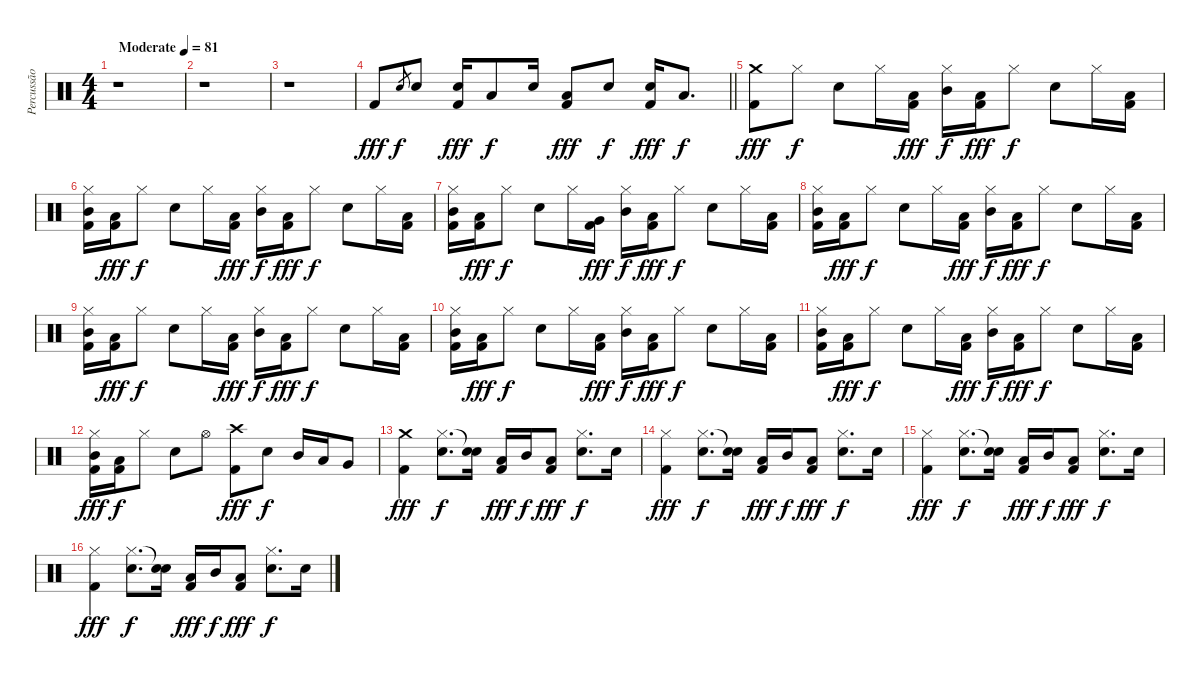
\track ("Percussão" "Percussão") {instrument percussion}
\staff {score}
\articulation defaults
\ts (4 4)
\tempo (81 "Moderate")
\clef neutral
\ks c
r.1{dy fff} |
r.1 |
r.1 |
\barLineRight lightlight "Kick (hit) 2".8 "Snare (hit) 2".8{gr dy f} "Snare (hit) 2".8
("Snare (hit) 2" "Kick (hit) 2").16{dy fff} "Low Tom (hit)".8{dy f} "Snare (hit) 2".16 ("Low Tom (hit)" "Kick (hit) 2").8{dy fff} "Snare (hit) 2".8{dy f} ("Snare (hit) 2" "Kick (hit) 2").16{dy fff} "Low Tom (hit)".8{d dy f} |
("Crash medium (hit)" "Kick (hit) 2").8{dy fff} "Hi-Hat (closed)".8{dy f} "Snare (hit) 2".8 "Hi-Hat (closed)".16 ("Low Tom (hit)" "Kick (hit) 2").16{dy fff} ("Hi-Hat (closed)" "Mid Tom (hit)").16{dy f} ("Low Tom (hit)" "Kick (hit) 2").16{dy fff} "Hi-Hat (closed)".8{dy f} "Snare (hit) 2".8 "Hi-Hat (closed)".16 ("Low Tom (hit)" "Kick (hit) 2").16 |
("Hi-Hat (closed)" "Mid Tom (hit)" "Kick (hit) 2").16 ("Low Tom (hit)" "Kick (hit) 2").16{dy fff} "Hi-Hat (closed)".8{dy f} "Snare (hit) 2".8 "Hi-Hat (closed)".16 ("Low Tom (hit)" "Kick (hit) 2").16{dy fff} ("Hi-Hat (closed)" "Mid Tom (hit)").16{dy f} ("Low Tom (hit)" "Kick (hit) 2").16{dy fff} "Hi-Hat (closed)".8{dy f} "Snare (hit) 2".8 "Hi-Hat (closed)".16 ("Low Tom (hit)" "Kick (hit) 2").16 |
("Hi-Hat (closed)" "Mid Tom (hit)" "Kick (hit) 2").16 ("Low Tom (hit)" "Kick (hit) 2").16{dy fff} "Hi-Hat (closed)".8{dy f} "Snare (hit) 2".8 "Hi-Hat (closed)".16 ("Very Low Tom (hit)" "Kick (hit) 2").16{dy fff} ("Hi-Hat (closed)" "Mid Tom (hit)").16{dy f} ("Low Tom (hit)" "Kick (hit) 2").16{dy fff} "Hi-Hat (closed)".8{dy f} "Snare (hit) 2".8 "Hi-Hat (closed)".16 ("Low Tom (hit)" "Kick (hit) 2").16 |
("Hi-Hat (closed)" "Mid Tom (hit)" "Kick (hit) 2").16 ("Low Tom (hit)" "Kick (hit) 2").16{dy fff} "Hi-Hat (closed)".8{dy f} "Snare (hit) 2".8 "Hi-Hat (closed)".16 ("Low Tom (hit)" "Kick (hit) 2").16{dy fff} ("Hi-Hat (closed)" "Mid Tom (hit)").16{dy f} ("Low Tom (hit)" "Kick (hit) 2").16{dy fff} "Hi-Hat (closed)".8{dy f} "Snare (hit) 2".8 "Hi-Hat (closed)".16 ("Low Tom (hit)" "Kick (hit) 2").16 |
("Hi-Hat (closed)" "Mid Tom (hit)" "Kick (hit) 2").16 ("Low Tom (hit)" "Kick (hit) 2").16{dy fff} "Hi-Hat (closed)".8{dy f} "Snare (hit) 2".8 "Hi-Hat (closed)".16 ("Low Tom (hit)" "Kick (hit) 2").16{dy fff} ("Hi-Hat (closed)" "Mid Tom (hit)").16{dy f} ("Low Tom (hit)" "Kick (hit) 2").16{dy fff} "Hi-Hat (closed)".8{dy f} "Snare (hit) 2".8 "Hi-Hat (closed)".16 ("Low Tom (hit)" "Kick (hit) 2").16 |
("Hi-Hat (closed)" "Mid Tom (hit)" "Kick (hit) 2").16 ("Low Tom (hit)" "Kick (hit) 2").16{dy fff} "Hi-Hat (closed)".8{dy f} "Snare (hit) 2".8 "Hi-Hat (closed)".16 ("Low Tom (hit)" "Kick (hit) 2").16{dy fff} ("Hi-Hat (closed)" "Mid Tom (hit)").16{dy f} ("Low Tom (hit)" "Kick (hit) 2").16{dy fff} "Hi-Hat (closed)".8{dy f} "Snare (hit) 2".8 "Hi-Hat (closed)".16 ("Low Tom (hit)" "Kick (hit) 2").16 |
("Hi-Hat (closed)" "Mid Tom (hit)" "Kick (hit) 2").16 ("Low Tom (hit)" "Kick (hit) 2").16{dy fff} "Hi-Hat (closed)".8{dy f} "Snare (hit) 2".8 "Hi-Hat (closed)".16 ("Low Tom (hit)" "Kick (hit) 2").16{dy fff} ("Hi-Hat (closed)" "Mid Tom (hit)").16{dy f} ("Low Tom (hit)" "Kick (hit) 2").16{dy fff} "Hi-Hat (closed)".8{dy f} "Snare (hit) 2".8 "Hi-Hat (closed)".16 ("Low Tom (hit)" "Kick (hit) 2").16 |
("Hi-Hat (closed)" "Mid Tom (hit)" "Kick (hit) 2").16{dy fff} ("Low Tom (hit)" "Kick (hit) 2").16{dy f} "Hi-Hat (closed)".8 "Snare (hit) 2".8 "Hi-Hat (open)".8 ("Crash high (hit)" "Kick (hit) 2").8{dy fff} "Snare (hit) 2".8{dy f} "Mid Tom (hit)".16 "Low Tom (hit)".16 "Very Low Tom (hit)".8 |
("Crash medium (hit)" "Kick (hit) 2").4{dy fff} ("Hi-Hat (closed)" "Snare (hit) 2").8{d dy f} ("Snare (hit)"{t} "Snare (hit) 2").16 ("Low Tom (hit)" "Kick (hit) 2").16{dy fff} "Mid Tom (hit)".16{dy f} ("Low Tom (hit)" "Kick (hit) 2").8{dy fff} ("Hi-Hat (closed)" "Snare (hit) 2").8{d dy f} "Snare (hit) 2".16 |
("Hi-Hat (closed)" "Kick (hit) 2").4{dy fff} ("Hi-Hat (closed)" "Snare (hit) 2").8{d dy f} ("Snare (hit)"{t} "Snare (hit) 2").16 ("Low Tom (hit)" "Kick (hit) 2").16{dy fff} "Mid Tom (hit)".16{dy f} ("Low Tom (hit)" "Kick (hit) 2").8{dy fff} ("Hi-Hat (closed)" "Snare (hit) 2").8{d dy f} "Snare (hit) 2".16 |
("Hi-Hat (closed)" "Kick (hit) 2").4{dy fff} ("Hi-Hat (closed)" "Snare (hit) 2").8{d dy f} ("Snare (hit)"{t} "Snare (hit) 2").16 ("Low Tom (hit)" "Kick (hit) 2").16{dy fff} "Mid Tom (hit)".16{dy f} ("Low Tom (hit)" "Kick (hit) 2").8{dy fff} ("Hi-Hat (closed)" "Snare (hit) 2").8{d dy f} "Snare (hit) 2".16 |
("Hi-Hat (closed)" "Kick (hit) 2").4{dy fff} ("Hi-Hat (closed)" "Snare (hit) 2").8{d dy f} ("Snare (hit)"{t} "Snare (hit) 2").16 ("Low Tom (hit)" "Kick (hit) 2").16{dy fff} "Mid Tom (hit)".16{dy f} ("Low Tom (hit)" "Kick (hit) 2").8{dy fff} ("Hi-Hat (closed)" "Snare (hit) 2").8{d dy f} "Snare (hit) 2".16
